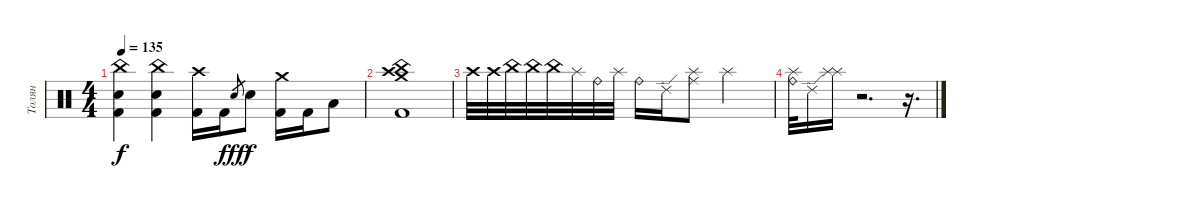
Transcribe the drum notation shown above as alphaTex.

\track ("Толян" "Толян") {instrument percussion}
\staff {score}
\articulation defaults
\ts (4 4)
\tempo 135
\clef neutral
\ks c
("China (hit)" "Electric Snare (hit)" "Kick (hit) 2").4{dy f} ("China (hit)" "Electric Snare (hit)" "Kick (hit) 2").4 ("Crash high (hit)" "Kick (hit) 2").16 "Kick (hit) 2".16 "Electric Snare (hit)".8{gr dy fff} "Electric Snare (hit)".8{dy f} ("Crash medium (hit)" "Kick (hit) 2").16 "Kick (hit) 2".16 "Low Tom (hit)".8 |
("Crash high (hit)" "Crash medium (hit)" "China (hit)" "Kick (hit) 2").1 |
"Crash high (hit)".32 "Crash high (hit)".32 "China (hit)".32 "China (hit)".32 "China (hit)".32 "Splash (hit)".32 "Ride (bell)".32 "Splash (hit)".32 "Ride (bell)".16 "Ride (edge) 2".16 ("Ride (middle)" "Splash (hit)").8 "Splash (hit)".2 |
("Ride (bell)" "Splash (hit)").32 "Ride (edge) 2".16 ("Splash (hit)" "Splash (hit)").16 r.2{d} r.16{d}
